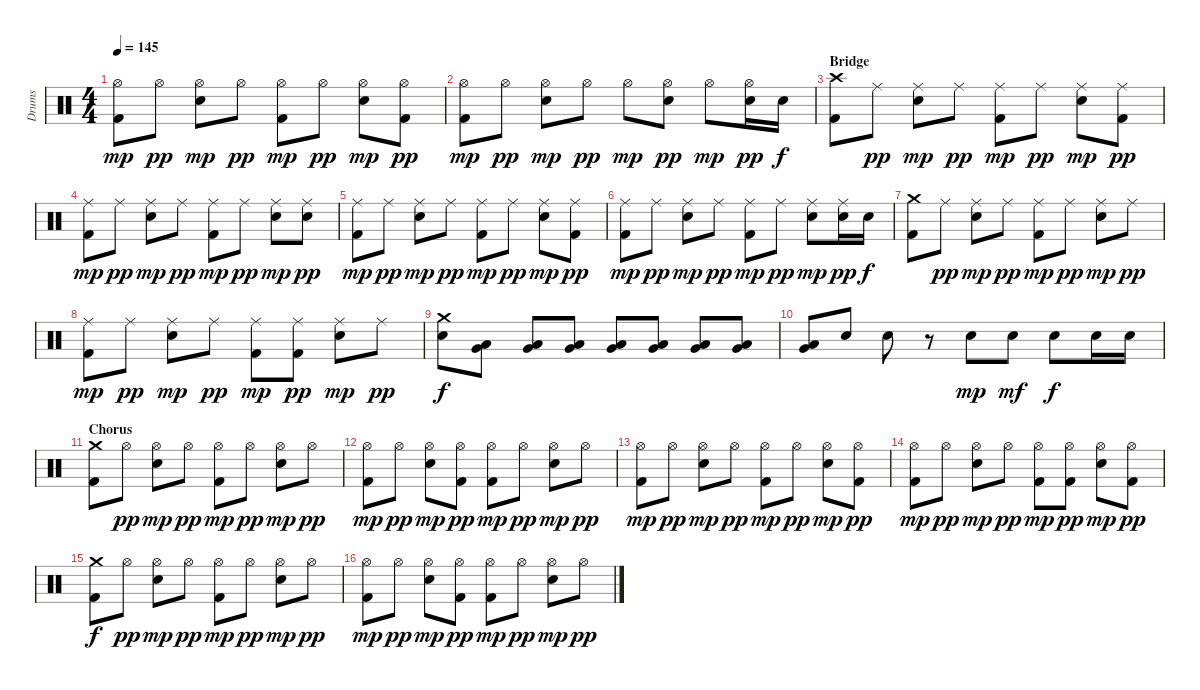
\track ("Drums" "Drums") {instrument percussion}
\staff {score}
\articulation defaults
\ts (4 4)
\tempo 145
\clef neutral
\ks c
("Hi-Hat (open)" "Kick (hit) 2").8{dy mp} "Hi-Hat (open)".8{dy pp} ("Hi-Hat (open)" "Snare (hit) 2").8{dy mp} "Hi-Hat (open)".8{dy pp} ("Hi-Hat (open)" "Kick (hit) 2").8{dy mp} "Hi-Hat (open)".8{dy pp} ("Hi-Hat (open)" "Snare (hit) 2").8{dy mp} ("Hi-Hat (open)" "Kick (hit) 2").8{dy pp} |
("Hi-Hat (open)" "Kick (hit) 2").8{dy mp} "Hi-Hat (open)".8{dy pp} ("Hi-Hat (open)" "Snare (hit) 2").8{dy mp} "Hi-Hat (open)".8{dy pp} "Hi-Hat (open)".8{dy mp} ("Hi-Hat (open)" "Snare (hit) 2").8{dy pp} "Hi-Hat (open)".8{dy mp} ("Hi-Hat (open)" "Snare (hit) 2").16{dy pp} "Snare (hit) 2".16{dy f} |
\section ("" "Bridge")
("Crash high (hit)" "Kick (hit) 2").8 "Ride (middle)".8{dy pp} ("Ride (middle)" "Snare (hit) 2").8{dy mp} "Ride (middle)".8{dy pp} ("Ride (middle)" "Kick (hit) 2").8{dy mp} "Ride (middle)".8{dy pp} ("Ride (middle)" "Snare (hit) 2").8{dy mp} ("Ride (middle)" "Kick (hit) 2").8{dy pp} |
("Ride (middle)" "Kick (hit) 2").8{dy mp} "Ride (middle)".8{dy pp} ("Ride (middle)" "Snare (hit) 2").8{dy mp} "Ride (middle)".8{dy pp} ("Ride (middle)" "Kick (hit) 2").8{dy mp} "Ride (middle)".8{dy pp} ("Ride (middle)" "Snare (hit) 2").8{dy mp} ("Ride (middle)" "Snare (hit) 2").8{dy pp} |
("Ride (middle)" "Kick (hit) 2").8{dy mp} "Ride (middle)".8{dy pp} ("Ride (middle)" "Snare (hit) 2").8{dy mp} "Ride (middle)".8{dy pp} ("Ride (middle)" "Kick (hit) 2").8{dy mp} "Ride (middle)".8{dy pp} ("Ride (middle)" "Snare (hit) 2").8{dy mp} ("Ride (middle)" "Kick (hit) 2").8{dy pp} |
("Ride (middle)" "Kick (hit) 2").8{dy mp} "Ride (middle)".8{dy pp} ("Ride (middle)" "Snare (hit) 2").8{dy mp} "Ride (middle)".8{dy pp} ("Ride (middle)" "Kick (hit) 2").8{dy mp} "Ride (middle)".8{dy pp} ("Ride (middle)" "Snare (hit) 2").8{dy mp} ("Ride (middle)" "Snare (hit) 2").16{dy pp} "Snare (hit) 2".16{dy f} |
("Crash medium (hit)" "Kick (hit) 2").8 "Ride (middle)".8{dy pp} ("Ride (middle)" "Snare (hit) 2").8{dy mp} "Ride (middle)".8{dy pp} ("Ride (middle)" "Kick (hit) 2").8{dy mp} "Ride (middle)".8{dy pp} ("Ride (middle)" "Snare (hit) 2").8{dy mp} "Ride (middle)".8{dy pp} |
("Ride (middle)" "Kick (hit) 2").8{dy mp} "Ride (middle)".8{dy pp} ("Ride (middle)" "Snare (hit) 2").8{dy mp} "Ride (middle)".8{dy pp} ("Ride (middle)" "Kick (hit) 2").8{dy mp} ("Ride (middle)" "Kick (hit) 2").8{dy pp} ("Ride (middle)" "Snare (hit) 2").8{dy mp} "Ride (middle)".8{dy pp} |
("Crash medium (hit)" "Snare (hit) 2").8{dy f} ("Low Tom (hit)" "Very Low Tom (hit)").8 ("Low Tom (hit)" "Very Low Tom (hit)").8 ("Low Tom (hit)" "Very Low Tom (hit)").8 ("Low Tom (hit)" "Very Low Tom (hit)").8 ("Low Tom (hit)" "Very Low Tom (hit)").8 ("Low Tom (hit)" "Very Low Tom (hit)").8 ("Low Tom (hit)" "Very Low Tom (hit)").8 |
("Low Tom (hit)" "Very Low Tom (hit)").8 "Snare (hit) 2".8 "Snare (hit) 2".8 r.8 "Snare (hit) 2".8{dy mp} "Snare (hit) 2".8{dy mf} "Snare (hit) 2".8{dy f} "Snare (hit) 2".16 "Snare (hit) 2".16 |
\section ("" "Chorus")
("Crash medium (hit)" "Kick (hit) 2").8 "Hi-Hat (open)".8{dy pp} ("Hi-Hat (open)" "Snare (hit) 2").8{dy mp} "Hi-Hat (open)".8{dy pp} ("Hi-Hat (open)" "Kick (hit) 2").8{dy mp} "Hi-Hat (open)".8{dy pp} ("Hi-Hat (open)" "Snare (hit) 2").8{dy mp} "Hi-Hat (open)".8{dy pp} |
("Hi-Hat (open)" "Kick (hit) 2").8{dy mp} "Hi-Hat (open)".8{dy pp} ("Hi-Hat (open)" "Snare (hit) 2").8{dy mp} ("Hi-Hat (open)" "Kick (hit) 2").8{dy pp} ("Hi-Hat (open)" "Kick (hit) 2").8{dy mp} "Hi-Hat (open)".8{dy pp} ("Hi-Hat (open)" "Snare (hit) 2").8{dy mp} "Hi-Hat (open)".8{dy pp} |
("Hi-Hat (open)" "Kick (hit) 2").8{dy mp} "Hi-Hat (open)".8{dy pp} ("Hi-Hat (open)" "Snare (hit) 2").8{dy mp} "Hi-Hat (open)".8{dy pp} ("Hi-Hat (open)" "Kick (hit) 2").8{dy mp} "Hi-Hat (open)".8{dy pp} ("Hi-Hat (open)" "Snare (hit) 2").8{dy mp} ("Hi-Hat (open)" "Kick (hit) 2").8{dy pp} |
("Hi-Hat (open)" "Kick (hit) 2").8{dy mp} "Hi-Hat (open)".8{dy pp} ("Hi-Hat (open)" "Snare (hit) 2").8{dy mp} "Hi-Hat (open)".8{dy pp} ("Hi-Hat (open)" "Kick (hit) 2").8{dy mp} ("Hi-Hat (open)" "Kick (hit) 2").8{dy pp} ("Hi-Hat (open)" "Snare (hit) 2").8{dy mp} ("Hi-Hat (open)" "Kick (hit) 2").8{dy pp} |
("Crash medium (hit)" "Kick (hit) 2").8{dy f} "Hi-Hat (open)".8{dy pp} ("Hi-Hat (open)" "Snare (hit) 2").8{dy mp} "Hi-Hat (open)".8{dy pp} ("Hi-Hat (open)" "Kick (hit) 2").8{dy mp} "Hi-Hat (open)".8{dy pp} ("Hi-Hat (open)" "Snare (hit) 2").8{dy mp} "Hi-Hat (open)".8{dy pp} |
("Hi-Hat (open)" "Kick (hit) 2").8{dy mp} "Hi-Hat (open)".8{dy pp} ("Hi-Hat (open)" "Snare (hit) 2").8{dy mp} ("Hi-Hat (open)" "Kick (hit) 2").8{dy pp} ("Hi-Hat (open)" "Kick (hit) 2").8{dy mp} "Hi-Hat (open)".8{dy pp} ("Hi-Hat (open)" "Snare (hit) 2").8{dy mp} "Hi-Hat (open)".8{dy pp}
